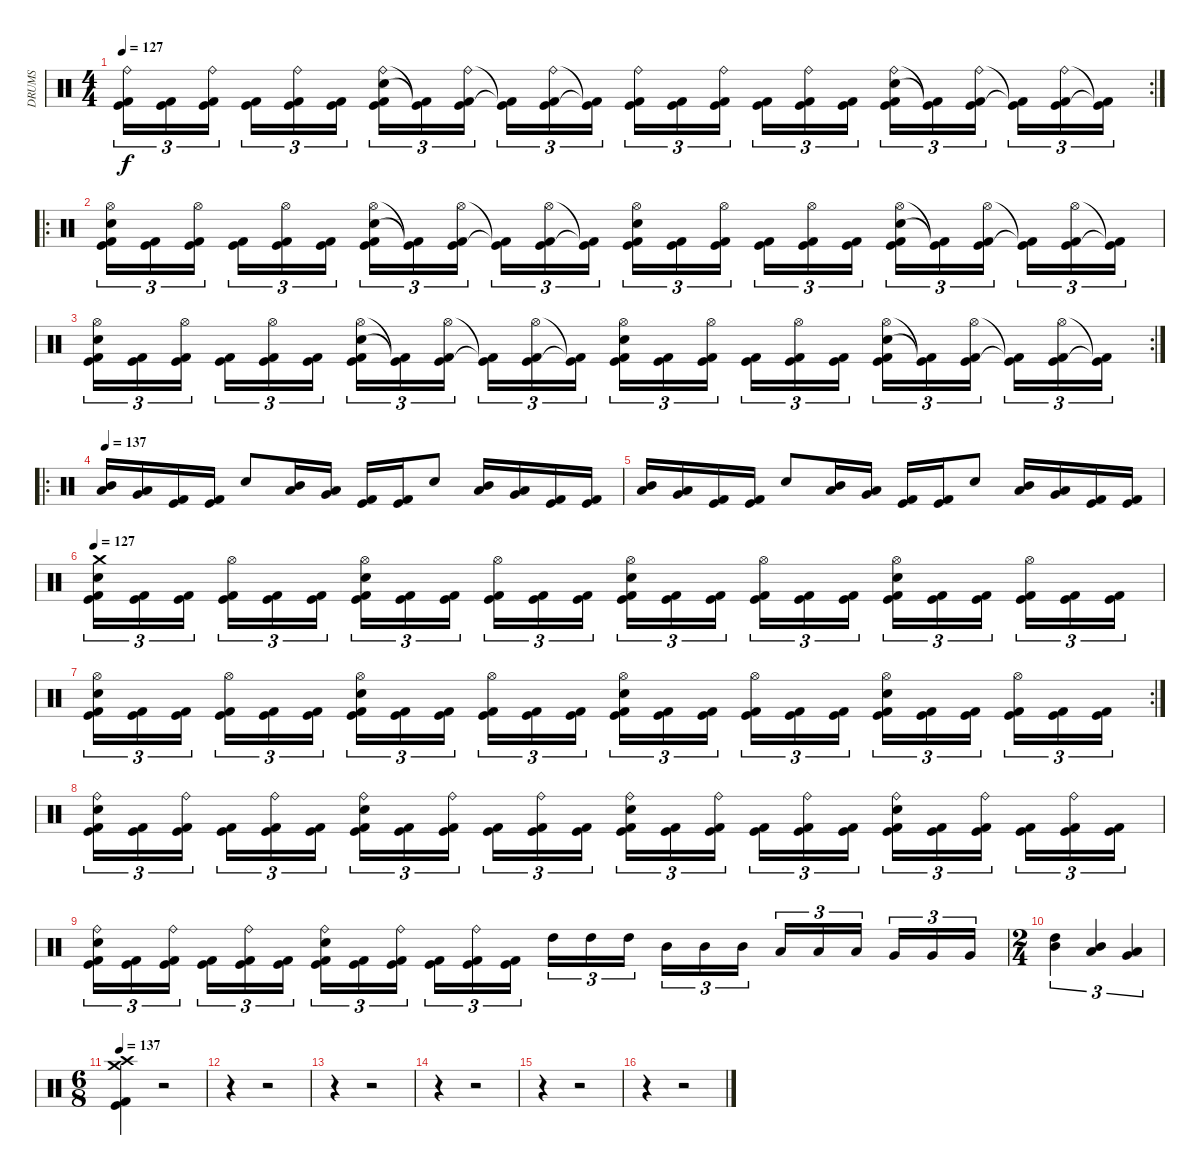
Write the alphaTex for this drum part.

\track ("DRUMS" "DRUMS") {instrument percussion}
\staff {score}
\articulation defaults
\rc 2
\ts (4 4)
\tempo 127
\clef neutral
\ks c
("Ride (bell)" "Kick (hit)" "Kick (hit) 2").16{tu (3 2) dy f} ("Kick (hit)" "Kick (hit) 2").16{tu (3 2)} ("Ride (bell)" "Kick (hit)" "Kick (hit) 2").16{tu (3 2)} ("Kick (hit)" "Kick (hit) 2").16{tu (3 2)} ("Ride (bell)" "Kick (hit)" "Kick (hit) 2").16{tu (3 2)} ("Kick (hit)" "Kick (hit) 2").16{tu (3 2)} ("Ride (bell)" "Snare (hit) 2" "Kick (hit)" "Kick (hit) 2").16{tu (3 2)} ("Kick (hit)"{t} "Kick (hit) 2"{t}).16{tu (3 2)} ("Ride (bell)" "Kick (hit)" "Kick (hit) 2").16{tu (3 2)} ("Kick (hit)"{t} "Kick (hit) 2"{t}).16{tu (3 2)} ("Ride (bell)" "Kick (hit)" "Kick (hit) 2").16{tu (3 2)} ("Kick (hit)"{t} "Kick (hit) 2"{t}).16{tu (3 2)} ("Ride (bell)" "Kick (hit)" "Kick (hit) 2").16{tu (3 2)} ("Kick (hit)" "Kick (hit) 2").16{tu (3 2)} ("Ride (bell)" "Kick (hit)" "Kick (hit) 2").16{tu (3 2)} ("Kick (hit)" "Kick (hit) 2").16{tu (3 2)} ("Ride (bell)" "Kick (hit)" "Kick (hit) 2").16{tu (3 2)} ("Kick (hit)" "Kick (hit) 2").16{tu (3 2)} ("Ride (bell)" "Snare (hit) 2" "Kick (hit)" "Kick (hit) 2").16{tu (3 2)} ("Kick (hit)"{t} "Kick (hit) 2"{t}).16{tu (3 2)} ("Ride (bell)" "Kick (hit)" "Kick (hit) 2").16{tu (3 2)} ("Kick (hit)"{t} "Kick (hit) 2"{t}).16{tu (3 2)} ("Ride (bell)" "Kick (hit)" "Kick (hit) 2").16{tu (3 2)} ("Kick (hit)"{t} "Kick (hit) 2"{t}).16{tu (3 2)} |
\ro
("Hi-Hat (open)" "Snare (hit) 2" "Kick (hit)" "Kick (hit) 2").16{tu (3 2)} ("Kick (hit)" "Kick (hit) 2").16{tu (3 2)} ("Hi-Hat (open)" "Kick (hit)" "Kick (hit) 2").16{tu (3 2)} ("Kick (hit)" "Kick (hit) 2").16{tu (3 2)} ("Hi-Hat (open)" "Kick (hit)" "Kick (hit) 2").16{tu (3 2)} ("Kick (hit)" "Kick (hit) 2").16{tu (3 2)} ("Hi-Hat (open)" "Snare (hit) 2" "Kick (hit)" "Kick (hit) 2").16{tu (3 2)} ("Kick (hit)"{t} "Kick (hit) 2"{t}).16{tu (3 2)} ("Hi-Hat (open)" "Kick (hit)" "Kick (hit) 2").16{tu (3 2)} ("Kick (hit)"{t} "Kick (hit) 2"{t}).16{tu (3 2)} ("Hi-Hat (open)" "Kick (hit)" "Kick (hit) 2").16{tu (3 2)} ("Kick (hit)"{t} "Kick (hit) 2"{t}).16{tu (3 2)} ("Hi-Hat (open)" "Snare (hit) 2" "Kick (hit)" "Kick (hit) 2").16{tu (3 2)} ("Kick (hit)" "Kick (hit) 2").16{tu (3 2)} ("Hi-Hat (open)" "Kick (hit)" "Kick (hit) 2").16{tu (3 2)} ("Kick (hit)" "Kick (hit) 2").16{tu (3 2)} ("Hi-Hat (open)" "Kick (hit)" "Kick (hit) 2").16{tu (3 2)} ("Kick (hit)" "Kick (hit) 2").16{tu (3 2)} ("Hi-Hat (open)" "Snare (hit) 2" "Kick (hit)" "Kick (hit) 2").16{tu (3 2)} ("Kick (hit)"{t} "Kick (hit) 2"{t}).16{tu (3 2)} ("Hi-Hat (open)" "Kick (hit)" "Kick (hit) 2").16{tu (3 2)} ("Kick (hit)"{t} "Kick (hit) 2"{t}).16{tu (3 2)} ("Hi-Hat (open)" "Kick (hit)" "Kick (hit) 2").16{tu (3 2)} ("Kick (hit)"{t} "Kick (hit) 2"{t}).16{tu (3 2)} |
\rc 2
("Hi-Hat (open)" "Snare (hit) 2" "Kick (hit)" "Kick (hit) 2").16{tu (3 2)} ("Kick (hit)" "Kick (hit) 2").16{tu (3 2)} ("Hi-Hat (open)" "Kick (hit)" "Kick (hit) 2").16{tu (3 2)} ("Kick (hit)" "Kick (hit) 2").16{tu (3 2)} ("Hi-Hat (open)" "Kick (hit)" "Kick (hit) 2").16{tu (3 2)} ("Kick (hit)" "Kick (hit) 2").16{tu (3 2)} ("Hi-Hat (open)" "Snare (hit) 2" "Kick (hit)" "Kick (hit) 2").16{tu (3 2)} ("Kick (hit)"{t} "Kick (hit) 2"{t}).16{tu (3 2)} ("Hi-Hat (open)" "Kick (hit)" "Kick (hit) 2").16{tu (3 2)} ("Kick (hit)"{t} "Kick (hit) 2"{t}).16{tu (3 2)} ("Hi-Hat (open)" "Kick (hit)" "Kick (hit) 2").16{tu (3 2)} ("Kick (hit)"{t} "Kick (hit) 2"{t}).16{tu (3 2)} ("Hi-Hat (open)" "Snare (hit) 2" "Kick (hit)" "Kick (hit) 2").16{tu (3 2)} ("Kick (hit)" "Kick (hit) 2").16{tu (3 2)} ("Hi-Hat (open)" "Kick (hit)" "Kick (hit) 2").16{tu (3 2)} ("Kick (hit)" "Kick (hit) 2").16{tu (3 2)} ("Hi-Hat (open)" "Kick (hit)" "Kick (hit) 2").16{tu (3 2)} ("Kick (hit)" "Kick (hit) 2").16{tu (3 2)} ("Hi-Hat (open)" "Snare (hit) 2" "Kick (hit)" "Kick (hit) 2").16{tu (3 2)} ("Kick (hit)"{t} "Kick (hit) 2"{t}).16{tu (3 2)} ("Hi-Hat (open)" "Kick (hit)" "Kick (hit) 2").16{tu (3 2)} ("Kick (hit)"{t} "Kick (hit) 2"{t}).16{tu (3 2)} ("Hi-Hat (open)" "Kick (hit)" "Kick (hit) 2").16{tu (3 2)} ("Kick (hit)"{t} "Kick (hit) 2"{t}).16{tu (3 2)} |
\ro
\tempo 137
("Mid Tom (hit)" "Low Tom (hit)").16 ("Low Tom (hit)" "Very Low Tom (hit)").16 ("Kick (hit)" "Kick (hit) 2").16 ("Kick (hit)" "Kick (hit) 2").16 "Snare (hit) 2".8 ("Mid Tom (hit)" "Low Tom (hit)").16 ("Low Tom (hit)" "Very Low Tom (hit)").16 ("Kick (hit)" "Kick (hit) 2").16 ("Kick (hit)" "Kick (hit) 2").16 "Snare (hit) 2".8 ("Mid Tom (hit)" "Low Tom (hit)").16 ("Low Tom (hit)" "Very Low Tom (hit)").16 ("Kick (hit)" "Kick (hit) 2").16 ("Kick (hit)" "Kick (hit) 2").16 |
("Mid Tom (hit)" "Low Tom (hit)").16 ("Low Tom (hit)" "Very Low Tom (hit)").16 ("Kick (hit)" "Kick (hit) 2").16 ("Kick (hit)" "Kick (hit) 2").16 "Snare (hit) 2".8 ("Mid Tom (hit)" "Low Tom (hit)").16 ("Low Tom (hit)" "Very Low Tom (hit)").16 ("Kick (hit)" "Kick (hit) 2").16 ("Kick (hit)" "Kick (hit) 2").16 "Snare (hit) 2".8 ("Mid Tom (hit)" "Low Tom (hit)").16 ("Low Tom (hit)" "Very Low Tom (hit)").16 ("Kick (hit)" "Kick (hit) 2").16 ("Kick (hit)" "Kick (hit) 2").16 |
\tempo 127
("Crash medium (hit)" "Snare (hit) 2" "Kick (hit)" "Kick (hit) 2").16{tu (3 2)} ("Kick (hit)" "Kick (hit) 2").16{tu (3 2)} ("Kick (hit)" "Kick (hit) 2").16{tu (3 2)} ("Hi-Hat (open)" "Kick (hit)" "Kick (hit) 2").16{tu (3 2)} ("Kick (hit)" "Kick (hit) 2").16{tu (3 2)} ("Kick (hit)" "Kick (hit) 2").16{tu (3 2)} ("Hi-Hat (open)" "Snare (hit) 2" "Kick (hit)" "Kick (hit) 2").16{tu (3 2)} ("Kick (hit)" "Kick (hit) 2").16{tu (3 2)} ("Kick (hit)" "Kick (hit) 2").16{tu (3 2)} ("Hi-Hat (open)" "Kick (hit)" "Kick (hit) 2").16{tu (3 2)} ("Kick (hit)" "Kick (hit) 2").16{tu (3 2)} ("Kick (hit)" "Kick (hit) 2").16{tu (3 2)} ("Hi-Hat (open)" "Snare (hit) 2" "Kick (hit)" "Kick (hit) 2").16{tu (3 2)} ("Kick (hit)" "Kick (hit) 2").16{tu (3 2)} ("Kick (hit)" "Kick (hit) 2").16{tu (3 2)} ("Hi-Hat (open)" "Kick (hit)" "Kick (hit) 2").16{tu (3 2)} ("Kick (hit)" "Kick (hit) 2").16{tu (3 2)} ("Kick (hit)" "Kick (hit) 2").16{tu (3 2)} ("Hi-Hat (open)" "Snare (hit) 2" "Kick (hit)" "Kick (hit) 2").16{tu (3 2)} ("Kick (hit)" "Kick (hit) 2").16{tu (3 2)} ("Kick (hit)" "Kick (hit) 2").16{tu (3 2)} ("Hi-Hat (open)" "Kick (hit)" "Kick (hit) 2").16{tu (3 2)} ("Kick (hit)" "Kick (hit) 2").16{tu (3 2)} ("Kick (hit)" "Kick (hit) 2").16{tu (3 2)} |
\rc 2
("Hi-Hat (open)" "Snare (hit) 2" "Kick (hit)" "Kick (hit) 2").16{tu (3 2)} ("Kick (hit)" "Kick (hit) 2").16{tu (3 2)} ("Kick (hit)" "Kick (hit) 2").16{tu (3 2)} ("Hi-Hat (open)" "Kick (hit)" "Kick (hit) 2").16{tu (3 2)} ("Kick (hit)" "Kick (hit) 2").16{tu (3 2)} ("Kick (hit)" "Kick (hit) 2").16{tu (3 2)} ("Hi-Hat (open)" "Snare (hit) 2" "Kick (hit)" "Kick (hit) 2").16{tu (3 2)} ("Kick (hit)" "Kick (hit) 2").16{tu (3 2)} ("Kick (hit)" "Kick (hit) 2").16{tu (3 2)} ("Hi-Hat (open)" "Kick (hit)" "Kick (hit) 2").16{tu (3 2)} ("Kick (hit)" "Kick (hit) 2").16{tu (3 2)} ("Kick (hit)" "Kick (hit) 2").16{tu (3 2)} ("Hi-Hat (open)" "Snare (hit) 2" "Kick (hit)" "Kick (hit) 2").16{tu (3 2)} ("Kick (hit)" "Kick (hit) 2").16{tu (3 2)} ("Kick (hit)" "Kick (hit) 2").16{tu (3 2)} ("Hi-Hat (open)" "Kick (hit)" "Kick (hit) 2").16{tu (3 2)} ("Kick (hit)" "Kick (hit) 2").16{tu (3 2)} ("Kick (hit)" "Kick (hit) 2").16{tu (3 2)} ("Hi-Hat (open)" "Snare (hit) 2" "Kick (hit)" "Kick (hit) 2").16{tu (3 2)} ("Kick (hit)" "Kick (hit) 2").16{tu (3 2)} ("Kick (hit)" "Kick (hit) 2").16{tu (3 2)} ("Hi-Hat (open)" "Kick (hit)" "Kick (hit) 2").16{tu (3 2)} ("Kick (hit)" "Kick (hit) 2").16{tu (3 2)} ("Kick (hit)" "Kick (hit) 2").16{tu (3 2)} |
("Ride (bell)" "Snare (hit) 2" "Kick (hit)" "Kick (hit) 2").16{tu (3 2)} ("Kick (hit)" "Kick (hit) 2").16{tu (3 2)} ("Ride (bell)" "Kick (hit)" "Kick (hit) 2").16{tu (3 2)} ("Kick (hit)" "Kick (hit) 2").16{tu (3 2)} ("Ride (bell)" "Kick (hit)" "Kick (hit) 2").16{tu (3 2)} ("Kick (hit)" "Kick (hit) 2").16{tu (3 2)} ("Ride (bell)" "Snare (hit) 2" "Kick (hit)" "Kick (hit) 2").16{tu (3 2)} ("Kick (hit)" "Kick (hit) 2").16{tu (3 2)} ("Ride (bell)" "Kick (hit)" "Kick (hit) 2").16{tu (3 2)} ("Kick (hit)" "Kick (hit) 2").16{tu (3 2)} ("Ride (bell)" "Kick (hit)" "Kick (hit) 2").16{tu (3 2)} ("Kick (hit)" "Kick (hit) 2").16{tu (3 2)} ("Ride (bell)" "Snare (hit) 2" "Kick (hit)" "Kick (hit) 2").16{tu (3 2)} ("Kick (hit)" "Kick (hit) 2").16{tu (3 2)} ("Ride (bell)" "Kick (hit)" "Kick (hit) 2").16{tu (3 2)} ("Kick (hit)" "Kick (hit) 2").16{tu (3 2)} ("Ride (bell)" "Kick (hit)" "Kick (hit) 2").16{tu (3 2)} ("Kick (hit)" "Kick (hit) 2").16{tu (3 2)} ("Ride (bell)" "Snare (hit) 2" "Kick (hit)" "Kick (hit) 2").16{tu (3 2)} ("Kick (hit)" "Kick (hit) 2").16{tu (3 2)} ("Ride (bell)" "Kick (hit)" "Kick (hit) 2").16{tu (3 2)} ("Kick (hit)" "Kick (hit) 2").16{tu (3 2)} ("Ride (bell)" "Kick (hit)" "Kick (hit) 2").16{tu (3 2)} ("Kick (hit)" "Kick (hit) 2").16{tu (3 2)} |
("Ride (bell)" "Snare (hit) 2" "Kick (hit)" "Kick (hit) 2").16{tu (3 2)} ("Kick (hit)" "Kick (hit) 2").16{tu (3 2)} ("Ride (bell)" "Kick (hit)" "Kick (hit) 2").16{tu (3 2)} ("Kick (hit)" "Kick (hit) 2").16{tu (3 2)} ("Ride (bell)" "Kick (hit)" "Kick (hit) 2").16{tu (3 2)} ("Kick (hit)" "Kick (hit) 2").16{tu (3 2)} ("Ride (bell)" "Snare (hit) 2" "Kick (hit)" "Kick (hit) 2").16{tu (3 2)} ("Kick (hit)" "Kick (hit) 2").16{tu (3 2)} ("Ride (bell)" "Kick (hit)" "Kick (hit) 2").16{tu (3 2)} ("Kick (hit)" "Kick (hit) 2").16{tu (3 2)} ("Ride (bell)" "Kick (hit)" "Kick (hit) 2").16{tu (3 2)} ("Kick (hit)" "Kick (hit) 2").16{tu (3 2)} "High Tom (hit)".16{tu (3 2)} "High Tom (hit)".16{tu (3 2)} "High Tom (hit)".16{tu (3 2)} "Mid Tom (hit)".16{tu (3 2)} "Mid Tom (hit)".16{tu (3 2)} "Mid Tom (hit)".16{tu (3 2)} "Low Tom (hit)".16{tu (3 2)} "Low Tom (hit)".16{tu (3 2)} "Low Tom (hit)".16{tu (3 2)} "Very Low Tom (hit)".16{tu (3 2)} "Very Low Tom (hit)".16{tu (3 2)} "Very Low Tom (hit)".16{tu (3 2)} |
\ts (2 4)
("High Tom (hit)" "Mid Tom (hit)").4{tu (3 2)} ("Mid Tom (hit)" "Low Tom (hit)").4{tu (3 2)} ("Low Tom (hit)" "Very Low Tom (hit)").4{tu (3 2)} |
\ts (6 8)
\tempo 137
("Crash medium (hit)" "Crash high (hit)" "Kick (hit)" "Kick (hit) 2").4 r.2 |
r.4 r.2 |
r.4 r.2 |
r.4 r.2 |
r.4 r.2 |
r.4 r.2
